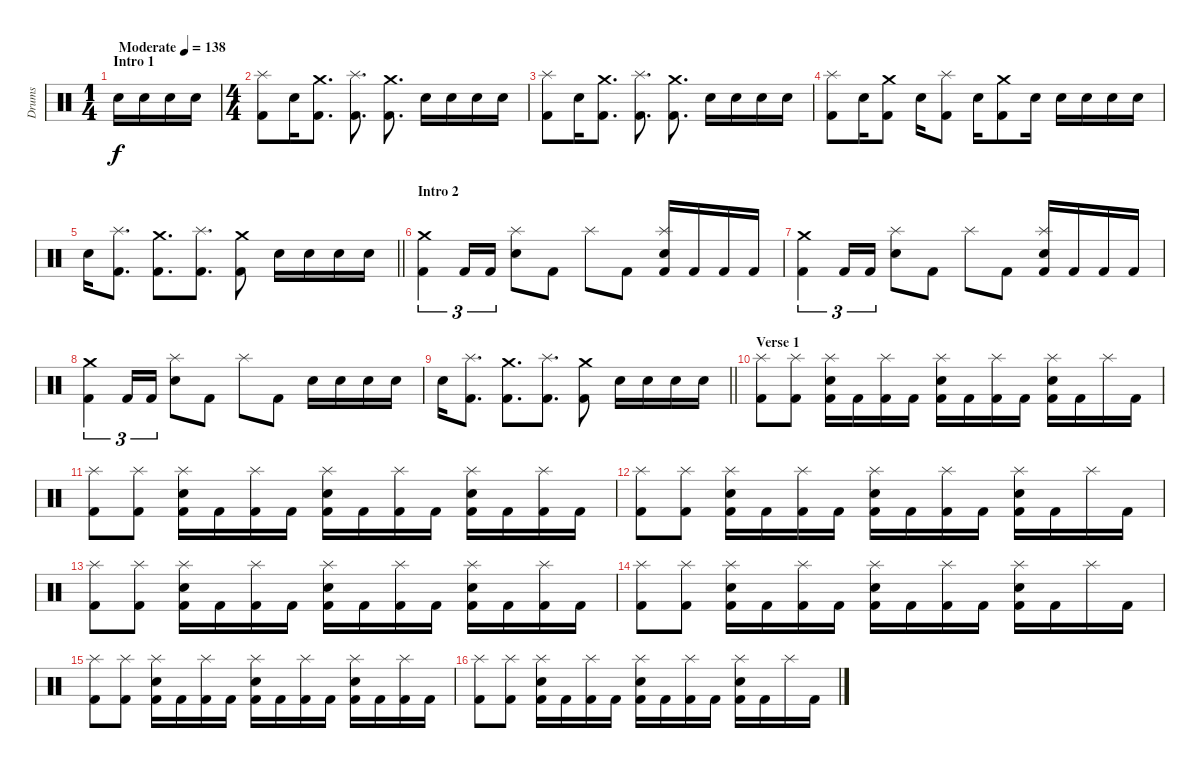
\track ("Drums" "Drums") {instrument percussion}
\staff {score}
\articulation defaults
\ts (1 4)
\section ("" "Intro 1")
\tempo (138 "Moderate")
\clef neutral
\ks c "Snare (hit) 2".16{dy f} "Snare (hit) 2".16 "Snare (hit) 2".16 "Snare (hit) 2".16
|
\ts (4 4)
("Splash (hit)" "Kick (hit) 2").8 "Snare (hit) 2".16 ("Crash medium (hit)" "Kick (hit) 2").8{d} ("Splash (hit)" "Kick (hit) 2").8{d} ("Crash medium (hit)" "Kick (hit) 2").8{d} "Snare (hit) 2".16 "Snare (hit) 2".16 "Snare (hit) 2".16 "Snare (hit) 2".16 |
("Splash (hit)" "Kick (hit) 2").8 "Snare (hit) 2".16 ("Crash medium (hit)" "Kick (hit) 2").8{d} ("Splash (hit)" "Kick (hit) 2").8{d} ("Crash medium (hit)" "Kick (hit) 2").8{d} "Snare (hit) 2".16 "Snare (hit) 2".16 "Snare (hit) 2".16 "Snare (hit) 2".16 |
("Splash (hit)" "Kick (hit) 2").8 "Snare (hit) 2".16 ("Crash medium (hit)" "Kick (hit) 2").8 "Snare (hit) 2".16 ("Splash (hit)" "Kick (hit) 2").8 "Snare (hit) 2".16 ("Crash medium (hit)" "Kick (hit) 2").8 "Snare (hit) 2".16 "Snare (hit) 2".16 "Snare (hit) 2".16 "Snare (hit) 2".16 "Snare (hit) 2".16 |
\barLineRight lightlight "Snare (hit) 2".16
("Splash (hit)" "Kick (hit) 2").8{d} ("Crash medium (hit)" "Kick (hit) 2").8{d} ("Splash (hit)" "Kick (hit) 2").8{d} ("Crash medium (hit)" "Kick (hit) 2").8 "Snare (hit) 2".16 "Snare (hit) 2".16 "Snare (hit) 2".16 "Snare (hit) 2".16 |
\section ("" "Intro 2")
("Crash medium (hit)" "Kick (hit) 2").4{tu (3 2)} "Kick (hit) 2".16{tu (3 2)} "Kick (hit) 2".16{tu (3 2)} ("Splash (hit)" "Snare (hit) 2").8 "Kick (hit) 2".8 "Splash (hit)".8 "Kick (hit) 2".8 ("Splash (hit)" "Snare (hit) 2" "Kick (hit) 2").16 "Kick (hit) 2".16 "Kick (hit) 2".16 "Kick (hit) 2".16 |
("Crash medium (hit)" "Kick (hit) 2").4{tu (3 2)} "Kick (hit) 2".16{tu (3 2)} "Kick (hit) 2".16{tu (3 2)} ("Splash (hit)" "Snare (hit) 2").8 "Kick (hit) 2".8 "Splash (hit)".8 "Kick (hit) 2".8 ("Splash (hit)" "Snare (hit) 2" "Kick (hit) 2").16 "Kick (hit) 2".16 "Kick (hit) 2".16 "Kick (hit) 2".16 |
("Crash medium (hit)" "Kick (hit) 2").4{tu (3 2)} "Kick (hit) 2".16{tu (3 2)} "Kick (hit) 2".16{tu (3 2)} ("Splash (hit)" "Snare (hit) 2").8 "Kick (hit) 2".8 "Splash (hit)".8 "Kick (hit) 2".8 "Snare (hit) 2".16 "Snare (hit) 2".16 "Snare (hit) 2".16 "Snare (hit) 2".16 |
\barLineRight lightlight "Snare (hit) 2".16
("Splash (hit)" "Kick (hit) 2").8{d} ("Crash medium (hit)" "Kick (hit) 2").8{d} ("Splash (hit)" "Kick (hit) 2").8{d} ("Crash medium (hit)" "Kick (hit) 2").8 "Snare (hit) 2".16 "Snare (hit) 2".16 "Snare (hit) 2".16 "Snare (hit) 2".16 |
\section ("" "Verse 1")
("Splash (hit)" "Kick (hit) 2").8 ("Splash (hit)" "Kick (hit) 2").8 ("Splash (hit)" "Snare (hit) 2" "Kick (hit) 2").16 "Kick (hit) 2".16 ("Splash (hit)" "Kick (hit) 2").16 "Kick (hit) 2".16 ("Splash (hit)" "Snare (hit) 2" "Kick (hit) 2").16 "Kick (hit) 2".16 ("Splash (hit)" "Kick (hit) 2").16 "Kick (hit) 2".16 ("Splash (hit)" "Snare (hit) 2" "Kick (hit) 2").16 "Kick (hit) 2".16 "Splash (hit)".16 "Kick (hit) 2".16 |
("Splash (hit)" "Kick (hit) 2").8 ("Splash (hit)" "Kick (hit) 2").8 ("Splash (hit)" "Snare (hit) 2" "Kick (hit) 2").16 "Kick (hit) 2".16 ("Splash (hit)" "Kick (hit) 2").16 "Kick (hit) 2".16 ("Splash (hit)" "Snare (hit) 2" "Kick (hit) 2").16 "Kick (hit) 2".16 ("Splash (hit)" "Kick (hit) 2").16 "Kick (hit) 2".16 ("Splash (hit)" "Snare (hit) 2" "Kick (hit) 2").16 "Kick (hit) 2".16 ("Splash (hit)" "Kick (hit) 2").16 "Kick (hit) 2".16 |
("Splash (hit)" "Kick (hit) 2").8 ("Splash (hit)" "Kick (hit) 2").8 ("Splash (hit)" "Snare (hit) 2" "Kick (hit) 2").16 "Kick (hit) 2".16 ("Splash (hit)" "Kick (hit) 2").16 "Kick (hit) 2".16 ("Splash (hit)" "Snare (hit) 2" "Kick (hit) 2").16 "Kick (hit) 2".16 ("Splash (hit)" "Kick (hit) 2").16 "Kick (hit) 2".16 ("Splash (hit)" "Snare (hit) 2" "Kick (hit) 2").16 "Kick (hit) 2".16 "Splash (hit)".16 "Kick (hit) 2".16 |
("Splash (hit)" "Kick (hit) 2").8 ("Splash (hit)" "Kick (hit) 2").8 ("Splash (hit)" "Snare (hit) 2" "Kick (hit) 2").16 "Kick (hit) 2".16 ("Splash (hit)" "Kick (hit) 2").16 "Kick (hit) 2".16 ("Splash (hit)" "Snare (hit) 2" "Kick (hit) 2").16 "Kick (hit) 2".16 ("Splash (hit)" "Kick (hit) 2").16 "Kick (hit) 2".16 ("Splash (hit)" "Snare (hit) 2" "Kick (hit) 2").16 "Kick (hit) 2".16 ("Splash (hit)" "Kick (hit) 2").16 "Kick (hit) 2".16 |
("Splash (hit)" "Kick (hit) 2").8 ("Splash (hit)" "Kick (hit) 2").8 ("Splash (hit)" "Snare (hit) 2" "Kick (hit) 2").16 "Kick (hit) 2".16 ("Splash (hit)" "Kick (hit) 2").16 "Kick (hit) 2".16 ("Splash (hit)" "Snare (hit) 2" "Kick (hit) 2").16 "Kick (hit) 2".16 ("Splash (hit)" "Kick (hit) 2").16 "Kick (hit) 2".16 ("Splash (hit)" "Snare (hit) 2" "Kick (hit) 2").16 "Kick (hit) 2".16 "Splash (hit)".16 "Kick (hit) 2".16 |
("Splash (hit)" "Kick (hit) 2").8 ("Splash (hit)" "Kick (hit) 2").8 ("Splash (hit)" "Snare (hit) 2" "Kick (hit) 2").16 "Kick (hit) 2".16 ("Splash (hit)" "Kick (hit) 2").16 "Kick (hit) 2".16 ("Splash (hit)" "Snare (hit) 2" "Kick (hit) 2").16 "Kick (hit) 2".16 ("Splash (hit)" "Kick (hit) 2").16 "Kick (hit) 2".16 ("Splash (hit)" "Snare (hit) 2" "Kick (hit) 2").16 "Kick (hit) 2".16 ("Splash (hit)" "Kick (hit) 2").16 "Kick (hit) 2".16 |
("Splash (hit)" "Kick (hit) 2").8 ("Splash (hit)" "Kick (hit) 2").8 ("Splash (hit)" "Snare (hit) 2" "Kick (hit) 2").16 "Kick (hit) 2".16 ("Splash (hit)" "Kick (hit) 2").16 "Kick (hit) 2".16 ("Splash (hit)" "Snare (hit) 2" "Kick (hit) 2").16 "Kick (hit) 2".16 ("Splash (hit)" "Kick (hit) 2").16 "Kick (hit) 2".16 ("Splash (hit)" "Snare (hit) 2" "Kick (hit) 2").16 "Kick (hit) 2".16 "Splash (hit)".16 "Kick (hit) 2".16
